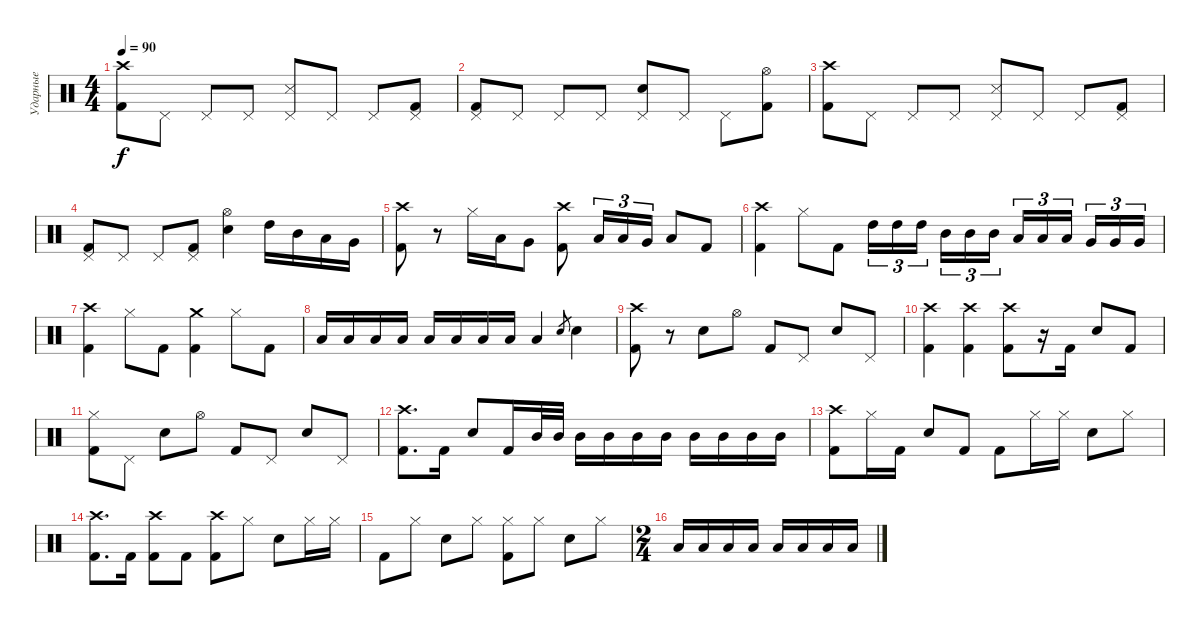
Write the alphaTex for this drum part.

\track ("Ударные" "Ударные") {instrument percussion}
\staff {score}
\articulation defaults
\ts (4 4)
\tempo 90
\clef neutral
\ks c
("Crash high (hit)" "Kick (hit) 2").8{dy f} "Pedal Hi-Hat (hit)".8 "Pedal Hi-Hat (hit)".8 "Pedal Hi-Hat (hit)".8 ("Pedal Hi-Hat (hit)" "Snare (side stick) 3").8 "Pedal Hi-Hat (hit)".8 "Pedal Hi-Hat (hit)".8 ("Pedal Hi-Hat (hit)" "Kick (hit) 2").8 |
("Pedal Hi-Hat (hit)" "Kick (hit) 2").8 "Pedal Hi-Hat (hit)".8 "Pedal Hi-Hat (hit)".8 "Pedal Hi-Hat (hit)".8 ("Pedal Hi-Hat (hit)" "Snare (hit) 2").8 "Pedal Hi-Hat (hit)".8 "Pedal Hi-Hat (hit)".8 ("Hi-Hat (open)" "Kick (hit) 2").8 |
("Crash high (hit)" "Kick (hit) 2").8 "Pedal Hi-Hat (hit)".8 "Pedal Hi-Hat (hit)".8 "Pedal Hi-Hat (hit)".8 ("Pedal Hi-Hat (hit)" "Snare (side stick) 3").8 "Pedal Hi-Hat (hit)".8 "Pedal Hi-Hat (hit)".8 ("Pedal Hi-Hat (hit)" "Kick (hit) 2").8 |
("Pedal Hi-Hat (hit)" "Kick (hit) 2").8 "Pedal Hi-Hat (hit)".8 "Pedal Hi-Hat (hit)".8 ("Pedal Hi-Hat (hit)" "Kick (hit) 2").8 ("Hi-Hat (open)" "Snare (hit) 2").4 "High Tom (hit)".16 "Mid Tom (hit)".16 "Low Tom (hit)".16 "Very Low Tom (hit)".16 |
("Crash high (hit)" "Kick (hit) 2").8 r.8 "Hi-Hat (closed)".16 "Low Tom (hit)".16 "Very Low Tom (hit)".8 ("Crash high (hit)" "Kick (hit) 2").8 "Low Tom (hit)".16{tu (3 2)} "Low Tom (hit)".16{tu (3 2)} "Very Low Tom (hit)".16{tu (3 2)} "Low Floor Tom (hit)".8 "Kick (hit) 2".8 |
("Crash high (hit)" "Kick (hit) 2").4 "Hi-Hat (closed)".8 "Kick (hit) 2".8 "High Tom (hit)".16{tu (3 2)} "High Tom (hit)".16{tu (3 2)} "High Tom (hit)".16{tu (3 2)} "Mid Tom (hit)".16{tu (3 2)} "Mid Tom (hit)".16{tu (3 2)} "Mid Tom (hit)".16{tu (3 2)} "Low Tom (hit)".16{tu (3 2)} "Low Tom (hit)".16{tu (3 2)} "Low Tom (hit)".16{tu (3 2)} "Very Low Tom (hit)".16{tu (3 2)} "Very Low Tom (hit)".16{tu (3 2)} "Very Low Tom (hit)".16{tu (3 2)} |
("Crash high (hit)" "Kick (hit) 2").4 "Hi-Hat (closed)".8 "Kick (hit) 2".8 ("Crash medium (hit)" "Kick (hit) 2").4 "Hi-Hat (closed)".8 "Kick (hit) 2".8 |
"Low Tom (hit)".16 "Low Tom (hit)".16 "Low Tom (hit)".16 "Low Tom (hit)".16 "Low Tom (hit)".16 "Low Tom (hit)".16 "Low Tom (hit)".16 "Low Tom (hit)".16 "Low Tom (hit)".4 "Snare (hit) 2".8{gr} "Electric Snare (hit)".4 |
("Crash high (hit)" "Kick (hit) 2").8 r.8 "Snare (hit) 2".8 "Hi-Hat (open)".8 "Kick (hit) 2".8 "Pedal Hi-Hat (hit)".8 "Snare (hit) 2".8 "Pedal Hi-Hat (hit)".8 |
("Crash high (hit)" "Kick (hit) 2").4 ("Crash high (hit)" "Kick (hit) 2").4 ("Crash high (hit)" "Kick (hit) 2").8 r.16 "Kick (hit) 2".16 "Snare (hit) 2".8 "Kick (hit) 2".8 |
("Hi-Hat (closed)" "Kick (hit) 2").8 "Pedal Hi-Hat (hit)".8 "Snare (hit) 2".8 "Hi-Hat (open)".8 "Kick (hit) 2".8 "Pedal Hi-Hat (hit)".8 "Snare (hit) 2".8 "Pedal Hi-Hat (hit)".8 |
("Crash high (hit)" "Kick (hit) 2").8{d} "Kick (hit) 2".16 "Snare (hit) 2".8 "Kick (hit) 2".16 "Mid Tom (hit)".32 "Mid Tom (hit)".32 "Mid Tom (hit)".16 "Mid Tom (hit)".16 "Mid Tom (hit)".16 "Mid Tom (hit)".16 "Mid Tom (hit)".16 "Mid Tom (hit)".16 "Mid Tom (hit)".16 "Mid Tom (hit)".16 |
("Crash high (hit)" "Kick (hit) 2").8 "Hi-Hat (closed)".16 "Kick (hit) 2".16 "Snare (hit) 2".8 "Kick (hit) 2".8 "Kick (hit) 2".8 "Hi-Hat (closed)".16 "Hi-Hat (closed)".16 "Snare (hit) 2".8 "Hi-Hat (closed)".8 |
("Crash high (hit)" "Kick (hit) 2").8{d} "Kick (hit) 2".16 ("Crash high (hit)" "Kick (hit) 2").8 "Kick (hit) 2".8 ("Crash high (hit)" "Kick (hit) 2").8 "Hi-Hat (closed)".8 "Snare (hit) 2".8 "Hi-Hat (closed)".16 "Hi-Hat (closed)".16 |
"Kick (hit) 2".8 "Hi-Hat (closed)".8 "Snare (hit) 2".8 "Hi-Hat (closed)".8 ("Hi-Hat (closed)" "Kick (hit) 2").8 "Hi-Hat (closed)".8 "Snare (hit) 2".8 "Hi-Hat (closed)".8 |
\ts (2 4)
"Low Tom (hit)".16 "Low Tom (hit)".16 "Low Tom (hit)".16 "Low Tom (hit)".16 "Low Tom (hit)".16 "Low Tom (hit)".16 "Low Tom (hit)".16 "Low Tom (hit)".16
